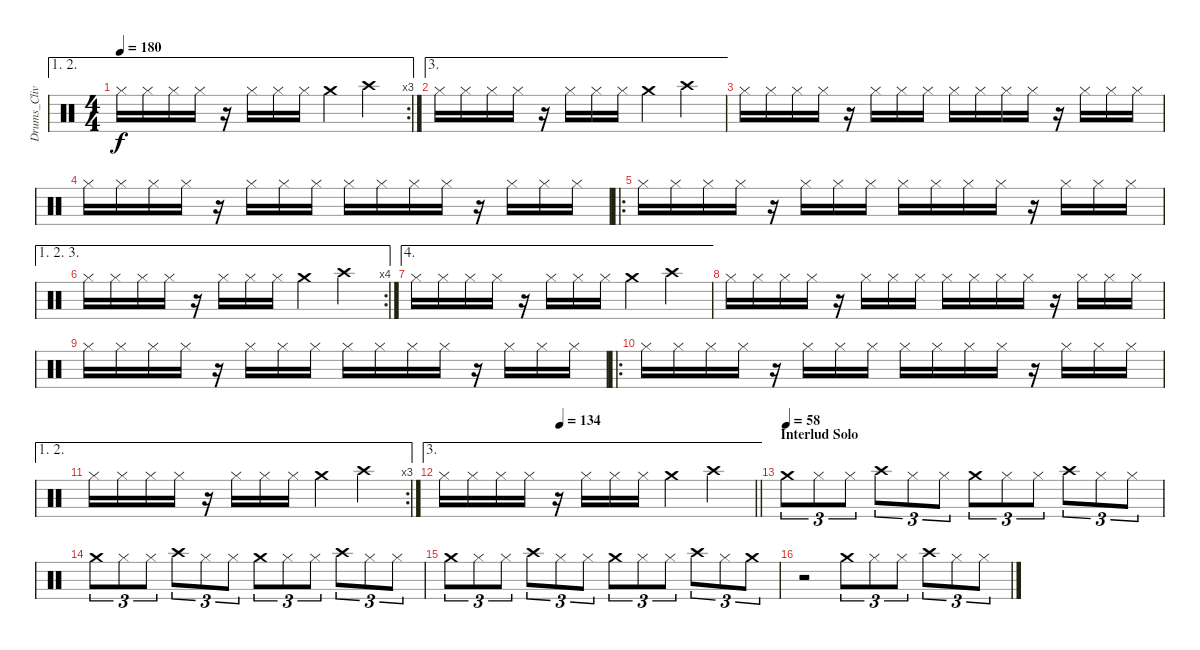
\track ("Drums_CliveBurr" "Drums_Cliv") {instrument percussion}
\staff {score}
\articulation defaults
\ae (1 2)
\rc 3
\ts (4 4)
\tempo 180
\clef neutral
\ks c "Hi-Hat (closed)".16{dy f} "Hi-Hat (closed)".16 "Hi-Hat (closed)".16 "Hi-Hat (closed)".16
r.16 "Hi-Hat (closed)".16 "Hi-Hat (closed)".16 "Hi-Hat (closed)".16 "Crash medium (hit)".4 "Crash high (hit)".4 |
\ae 3 "Hi-Hat (closed)".16 "Hi-Hat (closed)".16 "Hi-Hat (closed)".16 "Hi-Hat (closed)".16
r.16 "Hi-Hat (closed)".16 "Hi-Hat (closed)".16 "Hi-Hat (closed)".16 "Crash medium (hit)".4 "Crash high (hit)".4 |
"Hi-Hat (closed)".16 "Hi-Hat (closed)".16 "Hi-Hat (closed)".16 "Hi-Hat (closed)".16 r.16 "Hi-Hat (closed)".16 "Hi-Hat (closed)".16 "Hi-Hat (closed)".16 "Hi-Hat (closed)".16 "Hi-Hat (closed)".16 "Hi-Hat (closed)".16 "Hi-Hat (closed)".16 r.16 "Hi-Hat (closed)".16 "Hi-Hat (closed)".16 "Hi-Hat (closed)".16 |
"Hi-Hat (closed)".16 "Hi-Hat (closed)".16 "Hi-Hat (closed)".16 "Hi-Hat (closed)".16 r.16 "Hi-Hat (closed)".16 "Hi-Hat (closed)".16 "Hi-Hat (closed)".16 "Hi-Hat (closed)".16 "Hi-Hat (closed)".16 "Hi-Hat (closed)".16 "Hi-Hat (closed)".16 r.16 "Hi-Hat (closed)".16 "Hi-Hat (closed)".16 "Hi-Hat (closed)".16 |
\ro "Hi-Hat (closed)".16 "Hi-Hat (closed)".16 "Hi-Hat (closed)".16 "Hi-Hat (closed)".16
r.16 "Hi-Hat (closed)".16 "Hi-Hat (closed)".16 "Hi-Hat (closed)".16 "Hi-Hat (closed)".16 "Hi-Hat (closed)".16 "Hi-Hat (closed)".16 "Hi-Hat (closed)".16 r.16 "Hi-Hat (closed)".16 "Hi-Hat (closed)".16 "Hi-Hat (closed)".16 |
\ae (1 2 3)
\rc 4 "Hi-Hat (closed)".16 "Hi-Hat (closed)".16 "Hi-Hat (closed)".16 "Hi-Hat (closed)".16
r.16 "Hi-Hat (closed)".16 "Hi-Hat (closed)".16 "Hi-Hat (closed)".16 "Crash medium (hit)".4 "Crash high (hit)".4 |
\ae 4 "Hi-Hat (closed)".16 "Hi-Hat (closed)".16 "Hi-Hat (closed)".16 "Hi-Hat (closed)".16
r.16 "Hi-Hat (closed)".16 "Hi-Hat (closed)".16 "Hi-Hat (closed)".16 "Crash medium (hit)".4 "Crash high (hit)".4 |
"Hi-Hat (closed)".16 "Hi-Hat (closed)".16 "Hi-Hat (closed)".16 "Hi-Hat (closed)".16 r.16 "Hi-Hat (closed)".16 "Hi-Hat (closed)".16 "Hi-Hat (closed)".16 "Hi-Hat (closed)".16 "Hi-Hat (closed)".16 "Hi-Hat (closed)".16 "Hi-Hat (closed)".16 r.16 "Hi-Hat (closed)".16 "Hi-Hat (closed)".16 "Hi-Hat (closed)".16 |
"Hi-Hat (closed)".16 "Hi-Hat (closed)".16 "Hi-Hat (closed)".16 "Hi-Hat (closed)".16 r.16 "Hi-Hat (closed)".16 "Hi-Hat (closed)".16 "Hi-Hat (closed)".16 "Hi-Hat (closed)".16 "Hi-Hat (closed)".16 "Hi-Hat (closed)".16 "Hi-Hat (closed)".16 r.16 "Hi-Hat (closed)".16 "Hi-Hat (closed)".16 "Hi-Hat (closed)".16 |
\ro "Hi-Hat (closed)".16 "Hi-Hat (closed)".16 "Hi-Hat (closed)".16 "Hi-Hat (closed)".16
r.16 "Hi-Hat (closed)".16 "Hi-Hat (closed)".16 "Hi-Hat (closed)".16 "Hi-Hat (closed)".16 "Hi-Hat (closed)".16 "Hi-Hat (closed)".16 "Hi-Hat (closed)".16 r.16 "Hi-Hat (closed)".16 "Hi-Hat (closed)".16 "Hi-Hat (closed)".16 |
\ae (1 2)
\rc 3 "Hi-Hat (closed)".16 "Hi-Hat (closed)".16 "Hi-Hat (closed)".16 "Hi-Hat (closed)".16
r.16 "Hi-Hat (closed)".16 "Hi-Hat (closed)".16 "Hi-Hat (closed)".16 "Crash medium (hit)".4 "Crash high (hit)".4 |
\ae 3
\tempo (134 0.375)
\barLineRight lightlight "Hi-Hat (closed)".16 "Hi-Hat (closed)".16 "Hi-Hat (closed)".16 "Hi-Hat (closed)".16
r.16 "Hi-Hat (closed)".16 "Hi-Hat (closed)".16 "Hi-Hat (closed)".16 "Crash medium (hit)".4 "Crash high (hit)".4 |
\section ("" "Interlud Solo")
\tempo (58)
"Crash medium (hit)".8{tu (3 2)} "Hi-Hat (closed)".8{tu (3 2)} "Hi-Hat (closed)".8{tu (3 2)} "Crash high (hit)".8{tu (3 2)} "Hi-Hat (closed)".8{tu (3 2)} "Hi-Hat (closed)".8{tu (3 2)} "Crash medium (hit)".8{tu (3 2)} "Hi-Hat (closed)".8{tu (3 2)} "Hi-Hat (closed)".8{tu (3 2)} "Crash high (hit)".8{tu (3 2)} "Hi-Hat (closed)".8{tu (3 2)} "Hi-Hat (closed)".8{tu (3 2)} |
"Crash medium (hit)".8{tu (3 2)} "Hi-Hat (closed)".8{tu (3 2)} "Hi-Hat (closed)".8{tu (3 2)} "Crash high (hit)".8{tu (3 2)} "Hi-Hat (closed)".8{tu (3 2)} "Hi-Hat (closed)".8{tu (3 2)} "Crash medium (hit)".8{tu (3 2)} "Hi-Hat (closed)".8{tu (3 2)} "Hi-Hat (closed)".8{tu (3 2)} "Crash high (hit)".8{tu (3 2)} "Hi-Hat (closed)".8{tu (3 2)} "Hi-Hat (closed)".8{tu (3 2)} |
"Crash medium (hit)".8{tu (3 2)} "Hi-Hat (closed)".8{tu (3 2)} "Hi-Hat (closed)".8{tu (3 2)} "Crash high (hit)".8{tu (3 2)} "Hi-Hat (closed)".8{tu (3 2)} "Hi-Hat (closed)".8{tu (3 2)} "Crash medium (hit)".8{tu (3 2)} "Hi-Hat (closed)".8{tu (3 2)} "Hi-Hat (closed)".8{tu (3 2)} "Crash high (hit)".8{tu (3 2)} "Hi-Hat (closed)".8{tu (3 2)} "Crash medium (hit)".8{tu (3 2)} |
r.2 "Crash medium (hit)".8{tu (3 2)} "Hi-Hat (closed)".8{tu (3 2)} "Hi-Hat (closed)".8{tu (3 2)} "Crash high (hit)".8{tu (3 2)} "Hi-Hat (closed)".8{tu (3 2)} "Hi-Hat (closed)".8{tu (3 2)}
